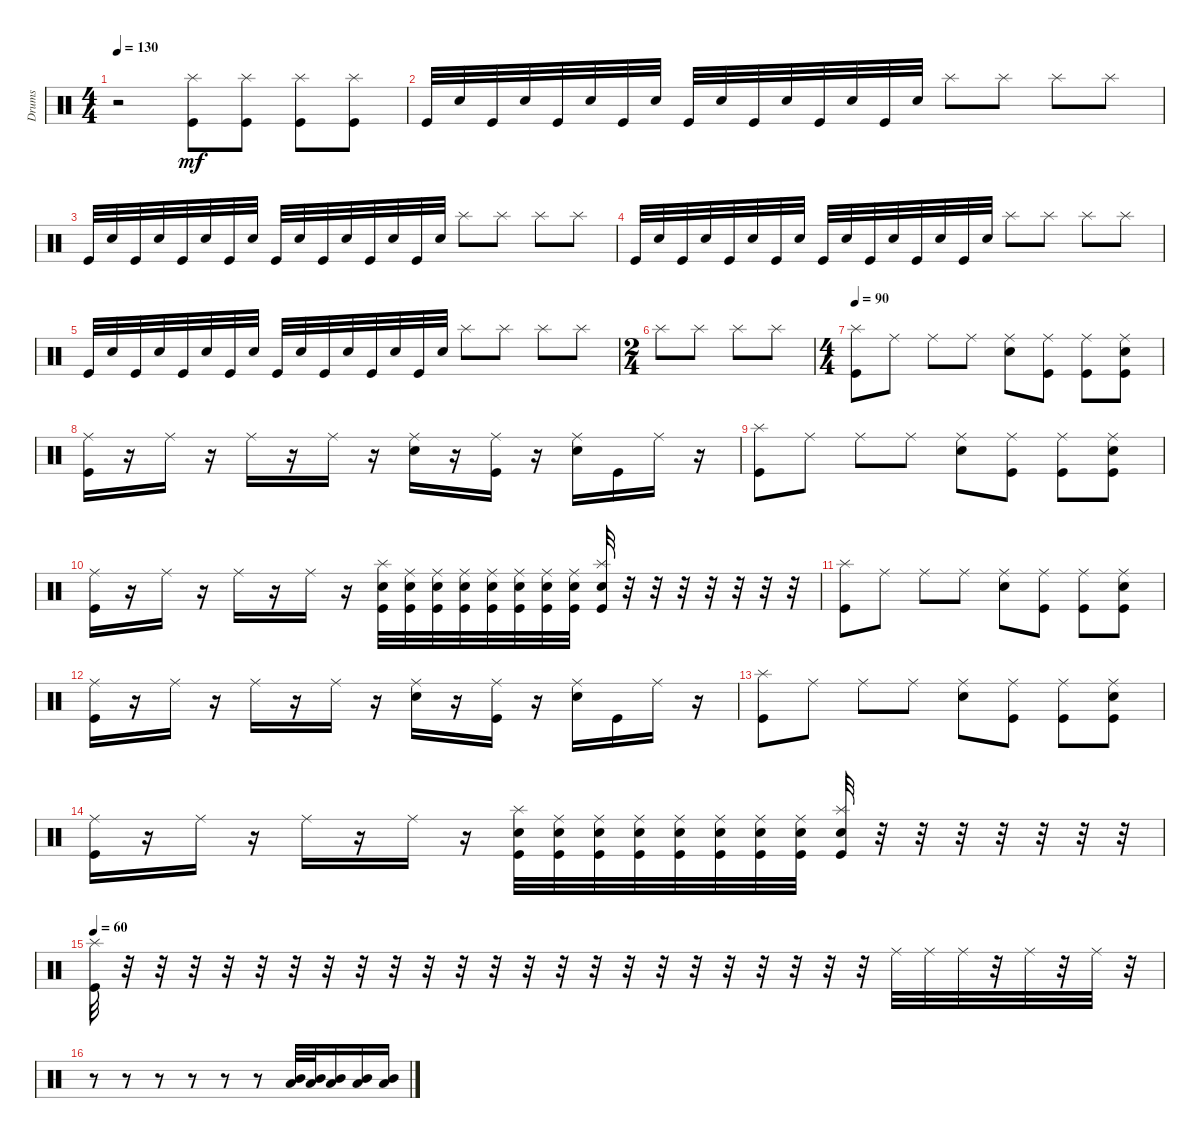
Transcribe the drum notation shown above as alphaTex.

\defaultSystemsLayout 4
\track ("Drumkit" "Drums") {instrument percussion}
\staff {score}
\articulation defaults
\ts (4 4)
\tempo 130
\clef neutral
\ks c
r.2{dy mf} ("Kick (hit)" "Splash (hit)").8 ("Kick (hit)" "Splash (hit)").8 ("Kick (hit)" "Splash (hit)").8 ("Kick (hit)" "Splash (hit)").8 |
"Kick (hit)".32 "Snare (hit) 2".32 "Kick (hit)".32 "Snare (hit) 2".32 "Kick (hit)".32 "Snare (hit) 2".32 "Kick (hit)".32 "Snare (hit) 2".32 "Kick (hit)".32 "Snare (hit) 2".32 "Kick (hit)".32 "Snare (hit) 2".32 "Kick (hit)".32 "Snare (hit) 2".32 "Kick (hit)".32 "Snare (hit) 2".32 "Splash (hit)".8 "Splash (hit)".8 "Splash (hit)".8 "Splash (hit)".8 |
"Kick (hit)".32 "Snare (hit) 2".32 "Kick (hit)".32 "Snare (hit) 2".32 "Kick (hit)".32 "Snare (hit) 2".32 "Kick (hit)".32 "Snare (hit) 2".32 "Kick (hit)".32 "Snare (hit) 2".32 "Kick (hit)".32 "Snare (hit) 2".32 "Kick (hit)".32 "Snare (hit) 2".32 "Kick (hit)".32 "Snare (hit) 2".32 "Splash (hit)".8 "Splash (hit)".8 "Splash (hit)".8 "Splash (hit)".8 |
"Kick (hit)".32 "Snare (hit) 2".32 "Kick (hit)".32 "Snare (hit) 2".32 "Kick (hit)".32 "Snare (hit) 2".32 "Kick (hit)".32 "Snare (hit) 2".32 "Kick (hit)".32 "Snare (hit) 2".32 "Kick (hit)".32 "Snare (hit) 2".32 "Kick (hit)".32 "Snare (hit) 2".32 "Kick (hit)".32 "Snare (hit) 2".32 "Splash (hit)".8 "Splash (hit)".8 "Splash (hit)".8 "Splash (hit)".8 |
"Kick (hit)".32 "Snare (hit) 2".32 "Kick (hit)".32 "Snare (hit) 2".32 "Kick (hit)".32 "Snare (hit) 2".32 "Kick (hit)".32 "Snare (hit) 2".32 "Kick (hit)".32 "Snare (hit) 2".32 "Kick (hit)".32 "Snare (hit) 2".32 "Kick (hit)".32 "Snare (hit) 2".32 "Kick (hit)".32 "Snare (hit) 2".32 "Splash (hit)".8 "Splash (hit)".8 "Splash (hit)".8 "Splash (hit)".8 |
\ts (2 4)
"Splash (hit)".8 "Splash (hit)".8 "Splash (hit)".8 "Splash (hit)".8 |
\ts (4 4)
\tempo 90
("Splash (hit)" "Kick (hit)").8 "Ride (middle)".8 "Ride (middle)".8 "Ride (middle)".8 ("Ride (middle)" "Snare (hit) 2").8 ("Ride (middle)" "Kick (hit)").8 ("Ride (middle)" "Kick (hit)").8 ("Ride (middle)" "Kick (hit)" "Snare (hit) 2").8 |
("Ride (middle)" "Kick (hit)").16 r.16 "Ride (middle)".16 r.16 "Ride (middle)".16 r.16 "Ride (middle)".16 r.16 ("Ride (middle)" "Snare (hit) 2").16 r.16 ("Ride (middle)" "Kick (hit)").16 r.16 ("Ride (middle)" "Snare (hit) 2").16 "Kick (hit)".16 "Ride (middle)".16 r.16 |
("Splash (hit)" "Kick (hit)").8 "Ride (middle)".8 "Ride (middle)".8 "Ride (middle)".8 ("Ride (middle)" "Snare (hit) 2").8 ("Ride (middle)" "Kick (hit)").8 ("Ride (middle)" "Kick (hit)").8 ("Ride (middle)" "Kick (hit)" "Snare (hit) 2").8 |
("Ride (middle)" "Kick (hit)").16 r.16 "Ride (middle)".16 r.16 "Ride (middle)".16 r.16 "Ride (middle)".16 r.16 ("Kick (hit)" "Snare (hit) 2" "Splash (hit)").32 ("Kick (hit)" "Snare (hit) 2" "Ride (middle)").32 ("Kick (hit)" "Snare (hit) 2" "Ride (middle)").32 ("Kick (hit)" "Snare (hit) 2" "Ride (middle)").32 ("Kick (hit)" "Snare (hit) 2" "Ride (middle)").32 ("Kick (hit)" "Snare (hit) 2" "Ride (middle)").32 ("Kick (hit)" "Snare (hit) 2" "Ride (middle)").32 ("Kick (hit)" "Snare (hit) 2" "Ride (middle)").32 ("Kick (hit)" "Snare (hit) 2" "Splash (hit)").32 r.32 r.32 r.32 r.32 r.32 r.32 r.32 |
("Splash (hit)" "Kick (hit)").8 "Ride (middle)".8 "Ride (middle)".8 "Ride (middle)".8 ("Ride (middle)" "Snare (hit) 2").8 ("Ride (middle)" "Kick (hit)").8 ("Ride (middle)" "Kick (hit)").8 ("Ride (middle)" "Kick (hit)" "Snare (hit) 2").8 |
("Ride (middle)" "Kick (hit)").16 r.16 "Ride (middle)".16 r.16 "Ride (middle)".16 r.16 "Ride (middle)".16 r.16 ("Ride (middle)" "Snare (hit) 2").16 r.16 ("Ride (middle)" "Kick (hit)").16 r.16 ("Ride (middle)" "Snare (hit) 2").16 "Kick (hit)".16 "Ride (middle)".16 r.16 |
("Splash (hit)" "Kick (hit)").8 "Ride (middle)".8 "Ride (middle)".8 "Ride (middle)".8 ("Ride (middle)" "Snare (hit) 2").8 ("Ride (middle)" "Kick (hit)").8 ("Ride (middle)" "Kick (hit)").8 ("Ride (middle)" "Kick (hit)" "Snare (hit) 2").8 |
("Ride (middle)" "Kick (hit)").16 r.16 "Ride (middle)".16 r.16 "Ride (middle)".16 r.16 "Ride (middle)".16 r.16 ("Kick (hit)" "Snare (hit) 2" "Splash (hit)").32 ("Kick (hit)" "Snare (hit) 2" "Ride (middle)").32 ("Kick (hit)" "Snare (hit) 2" "Ride (middle)").32 ("Kick (hit)" "Snare (hit) 2" "Ride (middle)").32 ("Kick (hit)" "Snare (hit) 2" "Ride (middle)").32 ("Kick (hit)" "Snare (hit) 2" "Ride (middle)").32 ("Kick (hit)" "Snare (hit) 2" "Ride (middle)").32 ("Kick (hit)" "Snare (hit) 2" "Ride (middle)").32 ("Kick (hit)" "Snare (hit) 2" "Splash (hit)").32 r.32 r.32 r.32 r.32 r.32 r.32 r.32 |
\tempo 60
("Kick (hit)" "Splash (hit)").32 r.32 r.32 r.32 r.32 r.32 r.32 r.32 r.32 r.32 r.32 r.32 r.32 r.32 r.32 r.32 r.32 r.32 r.32 r.32 r.32 r.32 r.32 r.32 "Ride (middle)".32 "Ride (middle)".32 "Ride (middle)".32 r.32 "Ride (middle)".32 r.32 "Ride (middle)".32 r.32 |
r.8 r.8 r.8 r.8 r.8 r.8 ("Mid Tom (hit)" "Low Tom (hit)").32 ("Low Tom (hit)" "Mid Tom (hit)").32 ("Mid Tom (hit)" "Low Tom (hit)").16 ("Low Tom (hit)" "Mid Tom (hit)").16 ("Mid Tom (hit)" "Low Tom (hit)").16
